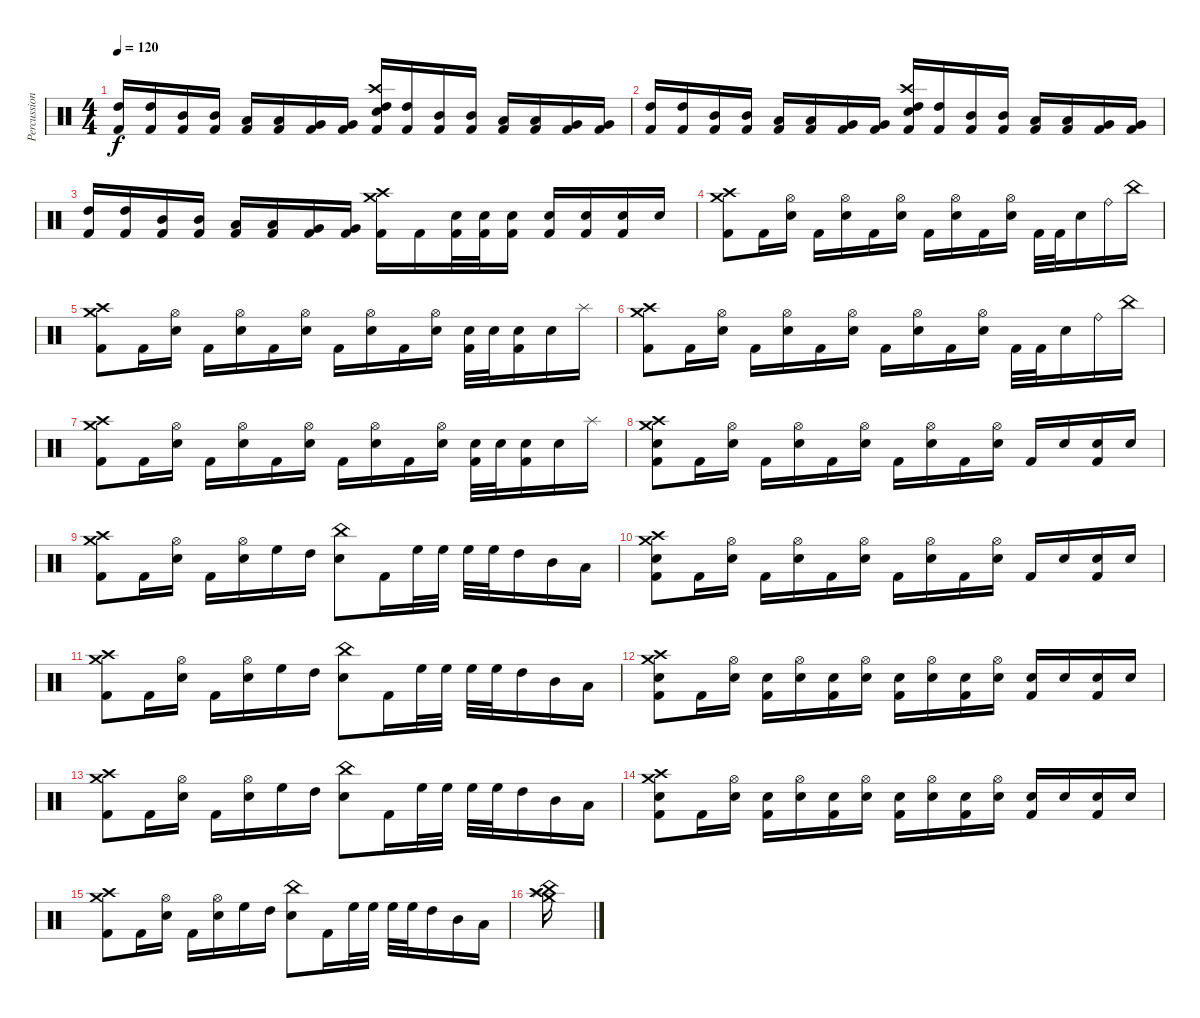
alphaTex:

\track ("Percussion" "Percussion") {instrument percussion}
\staff {score}
\articulation defaults
\ts (4 4)
\tempo 120
\clef neutral
\ks c
("High Tom (hit)" "Kick (hit) 2").16{dy f} ("High Tom (hit)" "Kick (hit) 2").16 ("Mid Tom (hit)" "Kick (hit) 2").16 ("Mid Tom (hit)" "Kick (hit) 2").16 ("Low Tom (hit)" "Kick (hit) 2").16 ("Low Tom (hit)" "Kick (hit) 2").16 ("Very Low Tom (hit)" "Kick (hit) 2").16 ("Very Low Tom (hit)" "Kick (hit) 2").16 ("Crash high (hit)" "Snare (hit) 2" "High Tom (hit)" "Kick (hit) 2").16 ("High Tom (hit)" "Kick (hit) 2").16 ("Mid Tom (hit)" "Kick (hit) 2").16 ("Mid Tom (hit)" "Kick (hit) 2").16 ("Low Tom (hit)" "Kick (hit) 2").16 ("Low Tom (hit)" "Kick (hit) 2").16 ("Very Low Tom (hit)" "Kick (hit) 2").16 ("Very Low Tom (hit)" "Kick (hit) 2").16 |
("High Tom (hit)" "Kick (hit) 2").16 ("High Tom (hit)" "Kick (hit) 2").16 ("Mid Tom (hit)" "Kick (hit) 2").16 ("Mid Tom (hit)" "Kick (hit) 2").16 ("Low Tom (hit)" "Kick (hit) 2").16 ("Low Tom (hit)" "Kick (hit) 2").16 ("Very Low Tom (hit)" "Kick (hit) 2").16 ("Very Low Tom (hit)" "Kick (hit) 2").16 ("Crash high (hit)" "Snare (hit) 2" "High Tom (hit)" "Kick (hit) 2").16 ("High Tom (hit)" "Kick (hit) 2").16 ("Mid Tom (hit)" "Kick (hit) 2").16 ("Mid Tom (hit)" "Kick (hit) 2").16 ("Low Tom (hit)" "Kick (hit) 2").16 ("Low Tom (hit)" "Kick (hit) 2").16 ("Very Low Tom (hit)" "Kick (hit) 2").16 ("Very Low Tom (hit)" "Kick (hit) 2").16 |
("High Tom (hit)" "Kick (hit) 2").16 ("High Tom (hit)" "Kick (hit) 2").16 ("Mid Tom (hit)" "Kick (hit) 2").16 ("Mid Tom (hit)" "Kick (hit) 2").16 ("Low Tom (hit)" "Kick (hit) 2").16 ("Low Tom (hit)" "Kick (hit) 2").16 ("Very Low Tom (hit)" "Kick (hit) 2").16 ("Very Low Tom (hit)" "Kick (hit) 2").16 ("Crash high (hit)" "Crash medium (hit)" "Kick (hit) 2").16 "Kick (hit) 2".16 ("Snare (hit) 2" "Kick (hit) 2").32 ("Snare (hit) 2" "Kick (hit) 2").32 ("Snare (hit) 2" "Kick (hit) 2").16 ("Snare (hit) 2" "Kick (hit) 2").16 ("Snare (hit) 2" "Kick (hit) 2").16 ("Snare (hit) 2" "Kick (hit) 2").16 "Snare (hit) 2".16 |
("Crash high (hit)" "Crash medium (hit)" "Kick (hit) 2").8 "Kick (hit) 2".16 ("Hi-Hat (open)" "Snare (hit) 2").16 "Kick (hit) 2".16 ("Hi-Hat (open)" "Snare (hit) 2").16 "Kick (hit) 2".16 ("Hi-Hat (open)" "Snare (hit) 2").16 "Kick (hit) 2".16 ("Hi-Hat (open)" "Snare (hit) 2").16 "Kick (hit) 2".16 ("Hi-Hat (open)" "Snare (hit) 2").16 "Kick (hit) 2".32 "Kick (hit) 2".32 "Snare (hit) 2".16 "Ride (bell)".16 "China (hit)".16 |
("Crash high (hit)" "Crash medium (hit)" "Kick (hit) 2").8 "Kick (hit) 2".16 ("Hi-Hat (open)" "Snare (hit) 2").16 "Kick (hit) 2".16 ("Hi-Hat (open)" "Snare (hit) 2").16 "Kick (hit) 2".16 ("Hi-Hat (open)" "Snare (hit) 2").16 "Kick (hit) 2".16 ("Hi-Hat (open)" "Snare (hit) 2").16 "Kick (hit) 2".16 ("Hi-Hat (open)" "Snare (hit) 2").16 ("Snare (hit) 2" "Kick (hit) 2").32 "Snare (hit) 2".32 ("Snare (hit) 2" "Kick (hit) 2").16 "Snare (hit) 2".16 "Splash (hit)".16 |
("Crash high (hit)" "Crash medium (hit)" "Kick (hit) 2").8 "Kick (hit) 2".16 ("Hi-Hat (open)" "Snare (hit) 2").16 "Kick (hit) 2".16 ("Hi-Hat (open)" "Snare (hit) 2").16 "Kick (hit) 2".16 ("Hi-Hat (open)" "Snare (hit) 2").16 "Kick (hit) 2".16 ("Hi-Hat (open)" "Snare (hit) 2").16 "Kick (hit) 2".16 ("Hi-Hat (open)" "Snare (hit) 2").16 "Kick (hit) 2".32 "Kick (hit) 2".32 "Snare (hit) 2".16 "Ride (bell)".16 "China (hit)".16 |
("Crash high (hit)" "Crash medium (hit)" "Kick (hit) 2").8 "Kick (hit) 2".16 ("Hi-Hat (open)" "Snare (hit) 2").16 "Kick (hit) 2".16 ("Hi-Hat (open)" "Snare (hit) 2").16 "Kick (hit) 2".16 ("Hi-Hat (open)" "Snare (hit) 2").16 "Kick (hit) 2".16 ("Hi-Hat (open)" "Snare (hit) 2").16 "Kick (hit) 2".16 ("Hi-Hat (open)" "Snare (hit) 2").16 ("Snare (hit) 2" "Kick (hit) 2").32 "Snare (hit) 2".32 ("Snare (hit) 2" "Kick (hit) 2").16 "Snare (hit) 2".16 "Splash (hit)".16 |
("Crash high (hit)" "Crash medium (hit)" "Snare (hit) 2" "Kick (hit) 2").8 "Kick (hit) 2".16 ("Hi-Hat (open)" "Snare (hit) 2").16 "Kick (hit) 2".16 ("Hi-Hat (open)" "Snare (hit) 2").16 "Kick (hit) 2".16 ("Hi-Hat (open)" "Snare (hit) 2").16 "Kick (hit) 2".16 ("Hi-Hat (open)" "Snare (hit) 2").16 "Kick (hit) 2".16 ("Hi-Hat (open)" "Snare (hit) 2").16 "Kick (hit) 2".16 "Snare (hit) 2".16 ("Snare (hit) 2" "Kick (hit) 2").16 "Snare (hit) 2".16 |
("Crash high (hit)" "Crash medium (hit)" "Kick (hit) 2").8 "Kick (hit) 2".16 ("Hi-Hat (open)" "Snare (hit) 2").16 "Kick (hit) 2".16 ("Hi-Hat (open)" "Snare (hit) 2").16 "High Floor Tom (hit)".16 "High Tom (hit)".16 ("China (hit)" "Snare (hit) 2").8 "Kick (hit) 2".16 "High Floor Tom (hit)".32 "High Floor Tom (hit)".32 "High Floor Tom (hit)".32 "High Floor Tom (hit)".32 "High Tom (hit)".16 "Mid Tom (hit)".16 "Low Tom (hit)".16 |
("Crash high (hit)" "Crash medium (hit)" "Snare (hit) 2" "Kick (hit) 2").8 "Kick (hit) 2".16 ("Hi-Hat (open)" "Snare (hit) 2").16 "Kick (hit) 2".16 ("Hi-Hat (open)" "Snare (hit) 2").16 "Kick (hit) 2".16 ("Hi-Hat (open)" "Snare (hit) 2").16 "Kick (hit) 2".16 ("Hi-Hat (open)" "Snare (hit) 2").16 "Kick (hit) 2".16 ("Hi-Hat (open)" "Snare (hit) 2").16 "Kick (hit) 2".16 "Snare (hit) 2".16 ("Snare (hit) 2" "Kick (hit) 2").16 "Snare (hit) 2".16 |
("Crash high (hit)" "Crash medium (hit)" "Kick (hit) 2").8 "Kick (hit) 2".16 ("Hi-Hat (open)" "Snare (hit) 2").16 "Kick (hit) 2".16 ("Hi-Hat (open)" "Snare (hit) 2").16 "High Floor Tom (hit)".16 "High Tom (hit)".16 ("China (hit)" "Snare (hit) 2").8 "Kick (hit) 2".16 "High Floor Tom (hit)".32 "High Floor Tom (hit)".32 "High Floor Tom (hit)".32 "High Floor Tom (hit)".32 "High Tom (hit)".16 "Mid Tom (hit)".16 "Low Tom (hit)".16 |
("Crash high (hit)" "Crash medium (hit)" "Snare (hit) 2" "Kick (hit) 2").8 "Kick (hit) 2".16 ("Hi-Hat (open)" "Snare (hit) 2").16 ("Snare (hit) 2" "Kick (hit) 2").16 ("Hi-Hat (open)" "Snare (hit) 2").16 ("Snare (hit) 2" "Kick (hit) 2").16 ("Hi-Hat (open)" "Snare (hit) 2").16 ("Snare (hit) 2" "Kick (hit) 2").16 ("Hi-Hat (open)" "Snare (hit) 2").16 ("Snare (hit) 2" "Kick (hit) 2").16 ("Hi-Hat (open)" "Snare (hit) 2").16 ("Snare (hit) 2" "Kick (hit) 2").16 "Snare (hit) 2".16 ("Snare (hit) 2" "Kick (hit) 2").16 "Snare (hit) 2".16 |
("Crash high (hit)" "Crash medium (hit)" "Kick (hit) 2").8 "Kick (hit) 2".16 ("Hi-Hat (open)" "Snare (hit) 2").16 "Kick (hit) 2".16 ("Hi-Hat (open)" "Snare (hit) 2").16 "High Floor Tom (hit)".16 "High Tom (hit)".16 ("China (hit)" "Snare (hit) 2").8 "Kick (hit) 2".16 "High Floor Tom (hit)".32 "High Floor Tom (hit)".32 "High Floor Tom (hit)".32 "High Floor Tom (hit)".32 "High Tom (hit)".16 "Mid Tom (hit)".16 "Low Tom (hit)".16 |
("Crash high (hit)" "Crash medium (hit)" "Snare (hit) 2" "Kick (hit) 2").8 "Kick (hit) 2".16 ("Hi-Hat (open)" "Snare (hit) 2").16 ("Snare (hit) 2" "Kick (hit) 2").16 ("Hi-Hat (open)" "Snare (hit) 2").16 ("Snare (hit) 2" "Kick (hit) 2").16 ("Hi-Hat (open)" "Snare (hit) 2").16 ("Snare (hit) 2" "Kick (hit) 2").16 ("Hi-Hat (open)" "Snare (hit) 2").16 ("Snare (hit) 2" "Kick (hit) 2").16 ("Hi-Hat (open)" "Snare (hit) 2").16 ("Snare (hit) 2" "Kick (hit) 2").16 "Snare (hit) 2".16 ("Snare (hit) 2" "Kick (hit) 2").16 "Snare (hit) 2".16 |
("Crash high (hit)" "Crash medium (hit)" "Kick (hit) 2").8 "Kick (hit) 2".16 ("Hi-Hat (open)" "Snare (hit) 2").16 "Kick (hit) 2".16 ("Hi-Hat (open)" "Snare (hit) 2").16 "High Floor Tom (hit)".16 "High Tom (hit)".16 ("China (hit)" "Snare (hit) 2").8 "Kick (hit) 2".16 "High Floor Tom (hit)".32 "High Floor Tom (hit)".32 "High Floor Tom (hit)".32 "High Floor Tom (hit)".32 "High Tom (hit)".16 "Mid Tom (hit)".16 "Low Tom (hit)".16 |
("Crash medium (hit)" "Crash high (hit)" "China (hit)" "Splash (hit)").16
